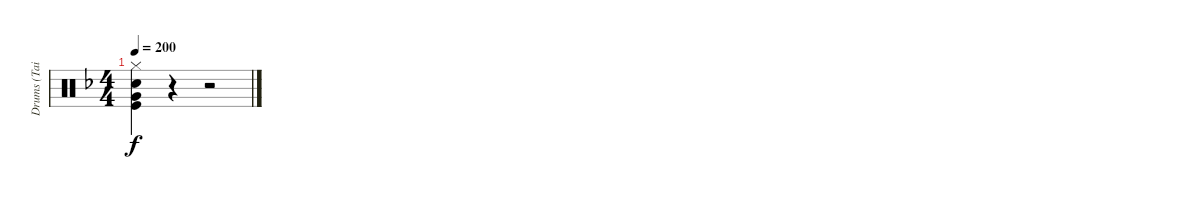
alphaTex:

\track ("Drums (Tainaka Ritsu)" "Drums (Tai") {instrument percussion}
\staff {score}
\articulation defaults
\ts (4 4)
\tempo 200
\clef neutral
\ks f
("Hi-Hat (closed)" "Snare (hit) 2" "Very Low Tom (hit)" "Kick (hit)").4{dy f} r.4 r.2
